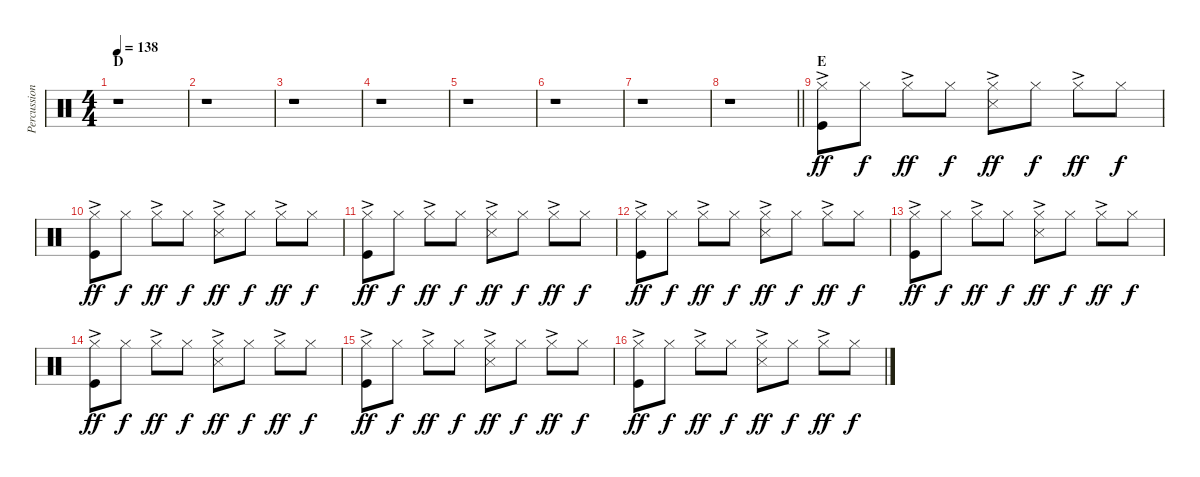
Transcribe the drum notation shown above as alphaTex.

\track ("Percussion" "Percussion") {instrument percussion}
\staff {score}
\articulation defaults
\ts (4 4)
\section ("" "D")
\tempo 138
\clef neutral
\ks c
r.1{dy ff} |
r.1 |
r.1 |
r.1 |
r.1 |
r.1 |
r.1 |
\barLineRight lightlight
r.1 |
\section ("" "E")
("Hi-Hat (closed)"{ac} "Kick (hit)").8 "Hi-Hat (closed)".8{dy f} "Hi-Hat (closed)"{ac}.8{dy ff} "Hi-Hat (closed)".8{dy f} ("Hi-Hat (closed)"{ac} "Snare (side stick) 3").8{dy ff} "Hi-Hat (closed)".8{dy f} "Hi-Hat (closed)"{ac}.8{dy ff} "Hi-Hat (closed)".8{dy f} |
("Hi-Hat (closed)"{ac} "Kick (hit)").8{dy ff} "Hi-Hat (closed)".8{dy f} "Hi-Hat (closed)"{ac}.8{dy ff} "Hi-Hat (closed)".8{dy f} ("Hi-Hat (closed)"{ac} "Snare (side stick) 3").8{dy ff} "Hi-Hat (closed)".8{dy f} "Hi-Hat (closed)"{ac}.8{dy ff} "Hi-Hat (closed)".8{dy f} |
("Hi-Hat (closed)"{ac} "Kick (hit)").8{dy ff} "Hi-Hat (closed)".8{dy f} "Hi-Hat (closed)"{ac}.8{dy ff} "Hi-Hat (closed)".8{dy f} ("Hi-Hat (closed)"{ac} "Snare (side stick) 3").8{dy ff} "Hi-Hat (closed)".8{dy f} "Hi-Hat (closed)"{ac}.8{dy ff} "Hi-Hat (closed)".8{dy f} |
("Hi-Hat (closed)"{ac} "Kick (hit)").8{dy ff} "Hi-Hat (closed)".8{dy f} "Hi-Hat (closed)"{ac}.8{dy ff} "Hi-Hat (closed)".8{dy f} ("Hi-Hat (closed)"{ac} "Snare (side stick) 3").8{dy ff} "Hi-Hat (closed)".8{dy f} "Hi-Hat (closed)"{ac}.8{dy ff} "Hi-Hat (closed)".8{dy f} |
("Hi-Hat (closed)"{ac} "Kick (hit)").8{dy ff} "Hi-Hat (closed)".8{dy f} "Hi-Hat (closed)"{ac}.8{dy ff} "Hi-Hat (closed)".8{dy f} ("Hi-Hat (closed)"{ac} "Snare (side stick) 3").8{dy ff} "Hi-Hat (closed)".8{dy f} "Hi-Hat (closed)"{ac}.8{dy ff} "Hi-Hat (closed)".8{dy f} |
("Hi-Hat (closed)"{ac} "Kick (hit)").8{dy ff} "Hi-Hat (closed)".8{dy f} "Hi-Hat (closed)"{ac}.8{dy ff} "Hi-Hat (closed)".8{dy f} ("Hi-Hat (closed)"{ac} "Snare (side stick) 3").8{dy ff} "Hi-Hat (closed)".8{dy f} "Hi-Hat (closed)"{ac}.8{dy ff} "Hi-Hat (closed)".8{dy f} |
("Hi-Hat (closed)"{ac} "Kick (hit)").8{dy ff} "Hi-Hat (closed)".8{dy f} "Hi-Hat (closed)"{ac}.8{dy ff} "Hi-Hat (closed)".8{dy f} ("Hi-Hat (closed)"{ac} "Snare (side stick) 3").8{dy ff} "Hi-Hat (closed)".8{dy f} "Hi-Hat (closed)"{ac}.8{dy ff} "Hi-Hat (closed)".8{dy f} |
("Hi-Hat (closed)"{ac} "Kick (hit)").8{dy ff} "Hi-Hat (closed)".8{dy f} "Hi-Hat (closed)"{ac}.8{dy ff} "Hi-Hat (closed)".8{dy f} ("Hi-Hat (closed)"{ac} "Snare (side stick) 3").8{dy ff} "Hi-Hat (closed)".8{dy f} "Hi-Hat (closed)"{ac}.8{dy ff} "Hi-Hat (closed)".8{dy f}
